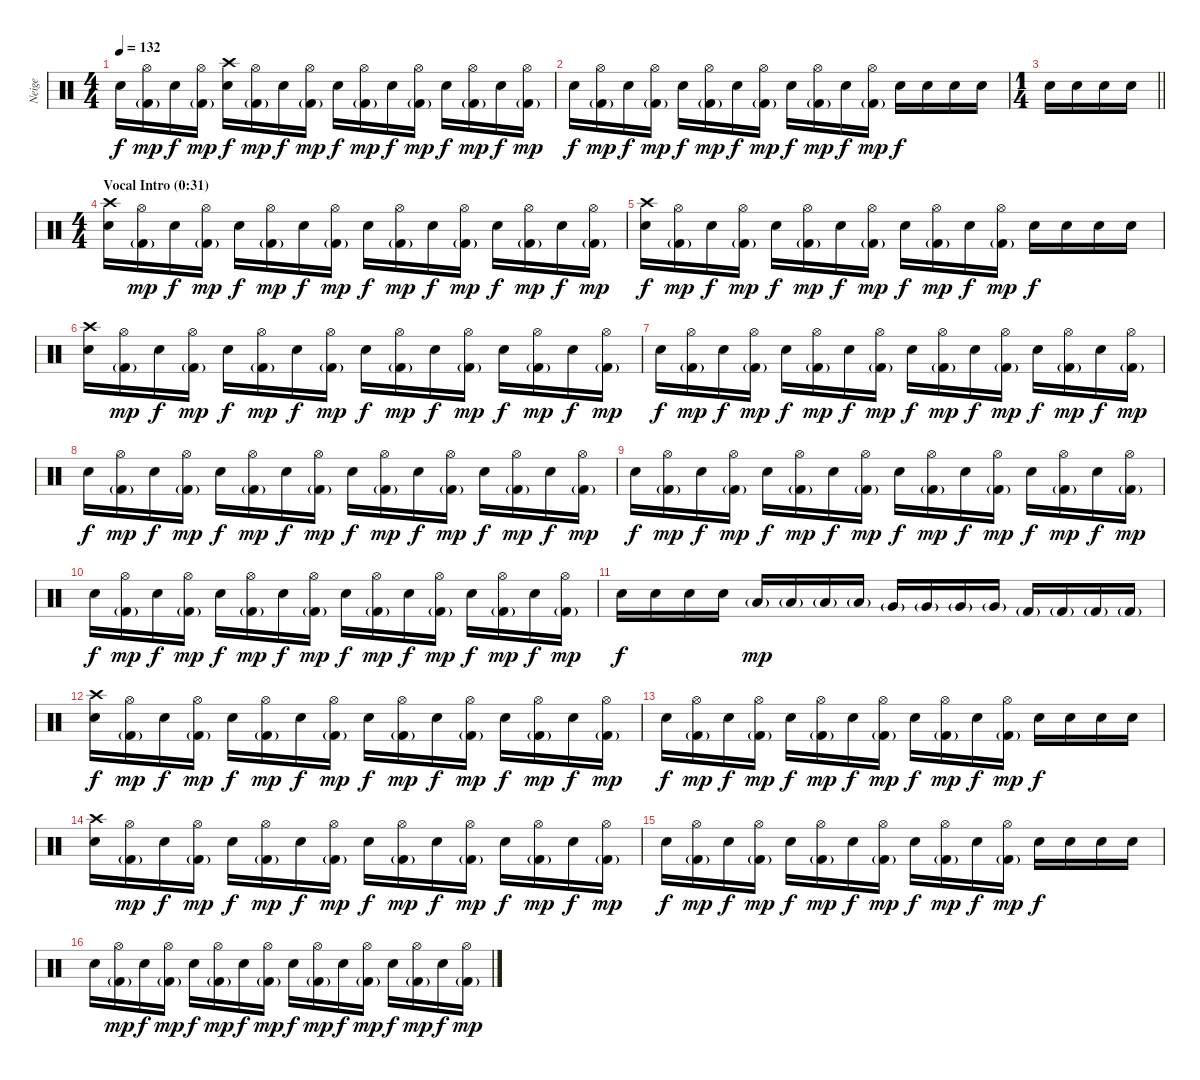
\track ("Neige" "Neige") {instrument percussion}
\staff {score}
\articulation defaults
\ts (4 4)
\tempo 132
\clef neutral
\ks c "Snare (hit) 2".16{dy f}
("Kick (hit) 2"{g} "Hi-Hat (open)").16{dy mp} "Snare (hit) 2".16{dy f} ("Kick (hit) 2"{g} "Hi-Hat (open)").16{dy mp} ("Snare (hit) 2" "Crash high (hit)").16{dy f} ("Kick (hit) 2"{g} "Hi-Hat (open)").16{dy mp} "Snare (hit) 2".16{dy f} ("Kick (hit) 2"{g} "Hi-Hat (open)").16{dy mp} "Snare (hit) 2".16{dy f} ("Kick (hit) 2"{g} "Hi-Hat (open)").16{dy mp} "Snare (hit) 2".16{dy f} ("Kick (hit) 2"{g} "Hi-Hat (open)").16{dy mp} "Snare (hit) 2".16{dy f} ("Kick (hit) 2"{g} "Hi-Hat (open)").16{dy mp} "Snare (hit) 2".16{dy f} ("Kick (hit) 2"{g} "Hi-Hat (open)").16{dy mp} |
"Snare (hit) 2".16{dy f} ("Kick (hit) 2"{g} "Hi-Hat (open)").16{dy mp} "Snare (hit) 2".16{dy f} ("Kick (hit) 2"{g} "Hi-Hat (open)").16{dy mp} "Snare (hit) 2".16{dy f} ("Kick (hit) 2"{g} "Hi-Hat (open)").16{dy mp} "Snare (hit) 2".16{dy f} ("Kick (hit) 2"{g} "Hi-Hat (open)").16{dy mp} "Snare (hit) 2".16{dy f} ("Kick (hit) 2"{g} "Hi-Hat (open)").16{dy mp} "Snare (hit) 2".16{dy f} ("Kick (hit) 2"{g} "Hi-Hat (open)").16{dy mp} "Snare (hit) 2".16{dy f} "Snare (hit) 2".16 "Snare (hit) 2".16 "Snare (hit) 2".16 |
\ts (1 4)
\barLineRight lightlight "Snare (hit) 2".16 "Snare (hit) 2".16 "Snare (hit) 2".16 "Snare (hit) 2".16
|
\ts (4 4)
\section ("" "Vocal Intro (0:31)")
("Snare (hit) 2" "Crash high (hit)").16 ("Kick (hit) 2"{g} "Hi-Hat (open)").16{dy mp} "Snare (hit) 2".16{dy f} ("Kick (hit) 2"{g} "Hi-Hat (open)").16{dy mp} "Snare (hit) 2".16{dy f} ("Kick (hit) 2"{g} "Hi-Hat (open)").16{dy mp} "Snare (hit) 2".16{dy f} ("Kick (hit) 2"{g} "Hi-Hat (open)").16{dy mp} "Snare (hit) 2".16{dy f} ("Kick (hit) 2"{g} "Hi-Hat (open)").16{dy mp} "Snare (hit) 2".16{dy f} ("Kick (hit) 2"{g} "Hi-Hat (open)").16{dy mp} "Snare (hit) 2".16{dy f} ("Kick (hit) 2"{g} "Hi-Hat (open)").16{dy mp} "Snare (hit) 2".16{dy f} ("Kick (hit) 2"{g} "Hi-Hat (open)").16{dy mp} |
("Snare (hit) 2" "Crash high (hit)").16{dy f} ("Kick (hit) 2"{g} "Hi-Hat (open)").16{dy mp} "Snare (hit) 2".16{dy f} ("Kick (hit) 2"{g} "Hi-Hat (open)").16{dy mp} "Snare (hit) 2".16{dy f} ("Kick (hit) 2"{g} "Hi-Hat (open)").16{dy mp} "Snare (hit) 2".16{dy f} ("Kick (hit) 2"{g} "Hi-Hat (open)").16{dy mp} "Snare (hit) 2".16{dy f} ("Kick (hit) 2"{g} "Hi-Hat (open)").16{dy mp} "Snare (hit) 2".16{dy f} ("Kick (hit) 2"{g} "Hi-Hat (open)").16{dy mp} "Snare (hit) 2".16{dy f} "Snare (hit) 2".16 "Snare (hit) 2".16 "Snare (hit) 2".16 |
("Snare (hit) 2" "Crash high (hit)").16 ("Kick (hit) 2"{g} "Hi-Hat (open)").16{dy mp} "Snare (hit) 2".16{dy f} ("Kick (hit) 2"{g} "Hi-Hat (open)").16{dy mp} "Snare (hit) 2".16{dy f} ("Kick (hit) 2"{g} "Hi-Hat (open)").16{dy mp} "Snare (hit) 2".16{dy f} ("Kick (hit) 2"{g} "Hi-Hat (open)").16{dy mp} "Snare (hit) 2".16{dy f} ("Kick (hit) 2"{g} "Hi-Hat (open)").16{dy mp} "Snare (hit) 2".16{dy f} ("Kick (hit) 2"{g} "Hi-Hat (open)").16{dy mp} "Snare (hit) 2".16{dy f} ("Kick (hit) 2"{g} "Hi-Hat (open)").16{dy mp} "Snare (hit) 2".16{dy f} ("Kick (hit) 2"{g} "Hi-Hat (open)").16{dy mp} |
"Snare (hit) 2".16{dy f} ("Kick (hit) 2"{g} "Hi-Hat (open)").16{dy mp} "Snare (hit) 2".16{dy f} ("Kick (hit) 2"{g} "Hi-Hat (open)").16{dy mp} "Snare (hit) 2".16{dy f} ("Kick (hit) 2"{g} "Hi-Hat (open)").16{dy mp} "Snare (hit) 2".16{dy f} ("Kick (hit) 2"{g} "Hi-Hat (open)").16{dy mp} "Snare (hit) 2".16{dy f} ("Kick (hit) 2"{g} "Hi-Hat (open)").16{dy mp} "Snare (hit) 2".16{dy f} ("Kick (hit) 2"{g} "Hi-Hat (open)").16{dy mp} "Snare (hit) 2".16{dy f} ("Kick (hit) 2"{g} "Hi-Hat (open)").16{dy mp} "Snare (hit) 2".16{dy f} ("Kick (hit) 2"{g} "Hi-Hat (open)").16{dy mp} |
"Snare (hit) 2".16{dy f} ("Kick (hit) 2"{g} "Hi-Hat (open)").16{dy mp} "Snare (hit) 2".16{dy f} ("Kick (hit) 2"{g} "Hi-Hat (open)").16{dy mp} "Snare (hit) 2".16{dy f} ("Kick (hit) 2"{g} "Hi-Hat (open)").16{dy mp} "Snare (hit) 2".16{dy f} ("Kick (hit) 2"{g} "Hi-Hat (open)").16{dy mp} "Snare (hit) 2".16{dy f} ("Kick (hit) 2"{g} "Hi-Hat (open)").16{dy mp} "Snare (hit) 2".16{dy f} ("Kick (hit) 2"{g} "Hi-Hat (open)").16{dy mp} "Snare (hit) 2".16{dy f} ("Kick (hit) 2"{g} "Hi-Hat (open)").16{dy mp} "Snare (hit) 2".16{dy f} ("Kick (hit) 2"{g} "Hi-Hat (open)").16{dy mp} |
"Snare (hit) 2".16{dy f} ("Kick (hit) 2"{g} "Hi-Hat (open)").16{dy mp} "Snare (hit) 2".16{dy f} ("Kick (hit) 2"{g} "Hi-Hat (open)").16{dy mp} "Snare (hit) 2".16{dy f} ("Kick (hit) 2"{g} "Hi-Hat (open)").16{dy mp} "Snare (hit) 2".16{dy f} ("Kick (hit) 2"{g} "Hi-Hat (open)").16{dy mp} "Snare (hit) 2".16{dy f} ("Kick (hit) 2"{g} "Hi-Hat (open)").16{dy mp} "Snare (hit) 2".16{dy f} ("Kick (hit) 2"{g} "Hi-Hat (open)").16{dy mp} "Snare (hit) 2".16{dy f} ("Kick (hit) 2"{g} "Hi-Hat (open)").16{dy mp} "Snare (hit) 2".16{dy f} ("Kick (hit) 2"{g} "Hi-Hat (open)").16{dy mp} |
"Snare (hit) 2".16{dy f} ("Kick (hit) 2"{g} "Hi-Hat (open)").16{dy mp} "Snare (hit) 2".16{dy f} ("Kick (hit) 2"{g} "Hi-Hat (open)").16{dy mp} "Snare (hit) 2".16{dy f} ("Kick (hit) 2"{g} "Hi-Hat (open)").16{dy mp} "Snare (hit) 2".16{dy f} ("Kick (hit) 2"{g} "Hi-Hat (open)").16{dy mp} "Snare (hit) 2".16{dy f} ("Kick (hit) 2"{g} "Hi-Hat (open)").16{dy mp} "Snare (hit) 2".16{dy f} ("Kick (hit) 2"{g} "Hi-Hat (open)").16{dy mp} "Snare (hit) 2".16{dy f} ("Kick (hit) 2"{g} "Hi-Hat (open)").16{dy mp} "Snare (hit) 2".16{dy f} ("Kick (hit) 2"{g} "Hi-Hat (open)").16{dy mp} |
"Snare (hit) 2".16{dy f} "Snare (hit) 2".16 "Snare (hit) 2".16 "Snare (hit) 2".16 "Low Tom (hit)"{g}.16{dy mp} "Low Tom (hit)"{g}.16 "Low Tom (hit)"{g}.16 "Low Tom (hit)"{g}.16 "Very Low Tom (hit)"{g}.16 "Very Low Tom (hit)"{g}.16 "Very Low Tom (hit)"{g}.16 "Very Low Tom (hit)"{g}.16 "Kick (hit) 2"{g}.16 "Kick (hit) 2"{g}.16 "Kick (hit) 2"{g}.16 "Kick (hit) 2"{g}.16 |
("Snare (hit) 2" "Crash high (hit)").16{dy f} ("Kick (hit) 2"{g} "Hi-Hat (open)").16{dy mp} "Snare (hit) 2".16{dy f} ("Kick (hit) 2"{g} "Hi-Hat (open)").16{dy mp} "Snare (hit) 2".16{dy f} ("Kick (hit) 2"{g} "Hi-Hat (open)").16{dy mp} "Snare (hit) 2".16{dy f} ("Kick (hit) 2"{g} "Hi-Hat (open)").16{dy mp} "Snare (hit) 2".16{dy f} ("Kick (hit) 2"{g} "Hi-Hat (open)").16{dy mp} "Snare (hit) 2".16{dy f} ("Kick (hit) 2"{g} "Hi-Hat (open)").16{dy mp} "Snare (hit) 2".16{dy f} ("Kick (hit) 2"{g} "Hi-Hat (open)").16{dy mp} "Snare (hit) 2".16{dy f} ("Kick (hit) 2"{g} "Hi-Hat (open)").16{dy mp} |
"Snare (hit) 2".16{dy f} ("Kick (hit) 2"{g} "Hi-Hat (open)").16{dy mp} "Snare (hit) 2".16{dy f} ("Kick (hit) 2"{g} "Hi-Hat (open)").16{dy mp} "Snare (hit) 2".16{dy f} ("Kick (hit) 2"{g} "Hi-Hat (open)").16{dy mp} "Snare (hit) 2".16{dy f} ("Kick (hit) 2"{g} "Hi-Hat (open)").16{dy mp} "Snare (hit) 2".16{dy f} ("Kick (hit) 2"{g} "Hi-Hat (open)").16{dy mp} "Snare (hit) 2".16{dy f} ("Kick (hit) 2"{g} "Hi-Hat (open)").16{dy mp} "Snare (hit) 2".16{dy f} "Snare (hit) 2".16 "Snare (hit) 2".16 "Snare (hit) 2".16 |
("Snare (hit) 2" "Crash high (hit)").16 ("Kick (hit) 2"{g} "Hi-Hat (open)").16{dy mp} "Snare (hit) 2".16{dy f} ("Kick (hit) 2"{g} "Hi-Hat (open)").16{dy mp} "Snare (hit) 2".16{dy f} ("Kick (hit) 2"{g} "Hi-Hat (open)").16{dy mp} "Snare (hit) 2".16{dy f} ("Kick (hit) 2"{g} "Hi-Hat (open)").16{dy mp} "Snare (hit) 2".16{dy f} ("Kick (hit) 2"{g} "Hi-Hat (open)").16{dy mp} "Snare (hit) 2".16{dy f} ("Kick (hit) 2"{g} "Hi-Hat (open)").16{dy mp} "Snare (hit) 2".16{dy f} ("Kick (hit) 2"{g} "Hi-Hat (open)").16{dy mp} "Snare (hit) 2".16{dy f} ("Kick (hit) 2"{g} "Hi-Hat (open)").16{dy mp} |
"Snare (hit) 2".16{dy f} ("Kick (hit) 2"{g} "Hi-Hat (open)").16{dy mp} "Snare (hit) 2".16{dy f} ("Kick (hit) 2"{g} "Hi-Hat (open)").16{dy mp} "Snare (hit) 2".16{dy f} ("Kick (hit) 2"{g} "Hi-Hat (open)").16{dy mp} "Snare (hit) 2".16{dy f} ("Kick (hit) 2"{g} "Hi-Hat (open)").16{dy mp} "Snare (hit) 2".16{dy f} ("Kick (hit) 2"{g} "Hi-Hat (open)").16{dy mp} "Snare (hit) 2".16{dy f} ("Kick (hit) 2"{g} "Hi-Hat (open)").16{dy mp} "Snare (hit) 2".16{dy f} "Snare (hit) 2".16 "Snare (hit) 2".16 "Snare (hit) 2".16 |
"Snare (hit) 2".16 ("Kick (hit) 2"{g} "Hi-Hat (open)").16{dy mp} "Snare (hit) 2".16{dy f} ("Kick (hit) 2"{g} "Hi-Hat (open)").16{dy mp} "Snare (hit) 2".16{dy f} ("Kick (hit) 2"{g} "Hi-Hat (open)").16{dy mp} "Snare (hit) 2".16{dy f} ("Kick (hit) 2"{g} "Hi-Hat (open)").16{dy mp} "Snare (hit) 2".16{dy f} ("Kick (hit) 2"{g} "Hi-Hat (open)").16{dy mp} "Snare (hit) 2".16{dy f} ("Kick (hit) 2"{g} "Hi-Hat (open)").16{dy mp} "Snare (hit) 2".16{dy f} ("Kick (hit) 2"{g} "Hi-Hat (open)").16{dy mp} "Snare (hit) 2".16{dy f} ("Kick (hit) 2"{g} "Hi-Hat (open)").16{dy mp}
